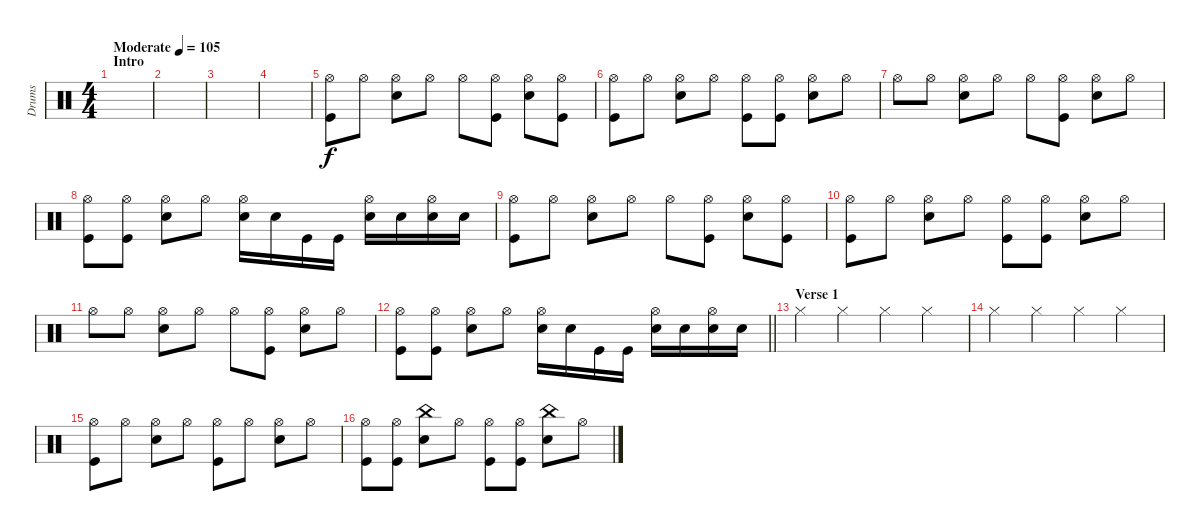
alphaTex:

\track ("Drums" "Drums") {instrument percussion}
\staff {score}
\articulation defaults
\ts (4 4)
\section ("" "Intro")
\tempo (105 "Moderate")
\clef neutral
\ks c
|
|
|
|
("Kick (hit)" "Hi-Hat (open)").8 "Hi-Hat (open)".8 ("Snare (hit) 2" "Hi-Hat (open)").8 "Hi-Hat (open)".8 "Hi-Hat (open)".8 ("Kick (hit)" "Hi-Hat (open)").8 ("Snare (hit) 2" "Hi-Hat (open)").8 ("Kick (hit)" "Hi-Hat (open)").8 |
("Kick (hit)" "Hi-Hat (open)").8 "Hi-Hat (open)".8 ("Snare (hit) 2" "Hi-Hat (open)").8 "Hi-Hat (open)".8 ("Kick (hit)" "Hi-Hat (open)").8 ("Kick (hit)" "Hi-Hat (open)").8 ("Snare (hit) 2" "Hi-Hat (open)").8 "Hi-Hat (open)".8 |
"Hi-Hat (open)".8 "Hi-Hat (open)".8 ("Snare (hit) 2" "Hi-Hat (open)").8 "Hi-Hat (open)".8 "Hi-Hat (open)".8 ("Kick (hit)" "Hi-Hat (open)").8 ("Snare (hit) 2" "Hi-Hat (open)").8 "Hi-Hat (open)".8 |
("Kick (hit)" "Hi-Hat (open)").8 ("Kick (hit)" "Hi-Hat (open)").8 ("Snare (hit) 2" "Hi-Hat (open)").8 "Hi-Hat (open)".8 ("Snare (hit) 2" "Hi-Hat (open)").16 "Snare (hit) 2".16 "Kick (hit)".16 "Kick (hit)".16 ("Snare (hit) 2" "Hi-Hat (open)").16 "Snare (hit) 2".16 ("Snare (hit) 2" "Hi-Hat (open)").16 "Snare (hit) 2".16 |
("Kick (hit)" "Hi-Hat (open)").8 "Hi-Hat (open)".8 ("Snare (hit) 2" "Hi-Hat (open)").8 "Hi-Hat (open)".8 "Hi-Hat (open)".8 ("Kick (hit)" "Hi-Hat (open)").8 ("Snare (hit) 2" "Hi-Hat (open)").8 ("Kick (hit)" "Hi-Hat (open)").8 |
("Kick (hit)" "Hi-Hat (open)").8 "Hi-Hat (open)".8 ("Snare (hit) 2" "Hi-Hat (open)").8 "Hi-Hat (open)".8 ("Kick (hit)" "Hi-Hat (open)").8 ("Kick (hit)" "Hi-Hat (open)").8 ("Snare (hit) 2" "Hi-Hat (open)").8 "Hi-Hat (open)".8 |
"Hi-Hat (open)".8 "Hi-Hat (open)".8 ("Snare (hit) 2" "Hi-Hat (open)").8 "Hi-Hat (open)".8 "Hi-Hat (open)".8 ("Kick (hit)" "Hi-Hat (open)").8 ("Snare (hit) 2" "Hi-Hat (open)").8 "Hi-Hat (open)".8 |
\barLineRight lightlight
("Kick (hit)" "Hi-Hat (open)").8 ("Kick (hit)" "Hi-Hat (open)").8 ("Snare (hit) 2" "Hi-Hat (open)").8 "Hi-Hat (open)".8 ("Snare (hit) 2" "Hi-Hat (open)").16 "Snare (hit) 2".16 "Kick (hit)".16 "Kick (hit)".16 ("Snare (hit) 2" "Hi-Hat (open)").16 "Snare (hit) 2".16 ("Snare (hit) 2" "Hi-Hat (open)").16 "Snare (hit) 2".16 |
\section ("" "Verse 1")
"Hi-Hat (closed)".4 "Hi-Hat (closed)".4 "Hi-Hat (closed)".4 "Hi-Hat (closed)".4 |
"Hi-Hat (closed)".4 "Hi-Hat (closed)".4 "Hi-Hat (closed)".4 "Hi-Hat (closed)".4 |
("Kick (hit)" "Hi-Hat (open)").8 "Hi-Hat (open)".8 ("Snare (hit) 2" "Hi-Hat (open)").8 "Hi-Hat (open)".8 ("Kick (hit)" "Hi-Hat (open)").8 "Hi-Hat (open)".8 ("Snare (hit) 2" "Hi-Hat (open)").8 "Hi-Hat (open)".8 |
("Kick (hit)" "Hi-Hat (open)").8 ("Kick (hit)" "Hi-Hat (open)").8 ("China (hit)" "Snare (hit) 2").8 "Hi-Hat (open)".8 ("Kick (hit)" "Hi-Hat (open)").8 ("Kick (hit)" "Hi-Hat (open)").8 ("China (hit)" "Snare (hit) 2").8 "Hi-Hat (open)".8
